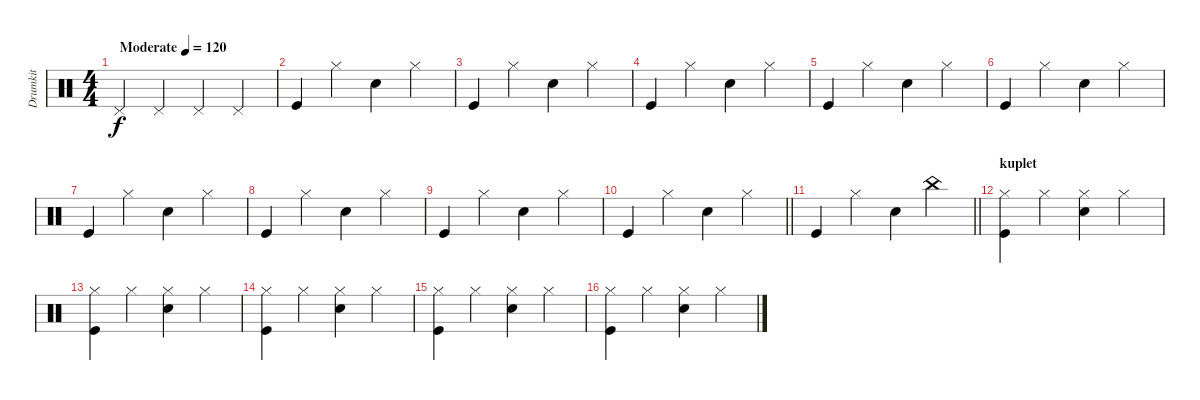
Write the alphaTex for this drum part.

\track ("Drumkit" "Drumkit") {instrument percussion}
\staff {score}
\articulation defaults
\ts (4 4)
\tempo (120 "Moderate")
\clef neutral
\ks c "Pedal Hi-Hat (hit)".4{dy f} "Pedal Hi-Hat (hit)".4 "Pedal Hi-Hat (hit)".4 "Pedal Hi-Hat (hit)".4
|
"Kick (hit)".4 "Hi-Hat (closed)".4 "Snare (hit) 2".4 "Hi-Hat (closed)".4 |
"Kick (hit)".4 "Hi-Hat (closed)".4 "Snare (hit) 2".4 "Hi-Hat (closed)".4 |
"Kick (hit)".4 "Hi-Hat (closed)".4 "Snare (hit) 2".4 "Hi-Hat (closed)".4 |
"Kick (hit)".4 "Hi-Hat (closed)".4 "Snare (hit) 2".4 "Hi-Hat (closed)".4 |
"Kick (hit)".4 "Hi-Hat (closed)".4 "Snare (hit) 2".4 "Hi-Hat (closed)".4 |
"Kick (hit)".4 "Hi-Hat (closed)".4 "Snare (hit) 2".4 "Hi-Hat (closed)".4 |
"Kick (hit)".4 "Hi-Hat (closed)".4 "Snare (hit) 2".4 "Hi-Hat (closed)".4 |
"Kick (hit)".4 "Hi-Hat (closed)".4 "Snare (hit) 2".4 "Hi-Hat (closed)".4 |
\barLineRight lightlight "Kick (hit)".4 "Hi-Hat (closed)".4 "Snare (hit) 2".4 "Hi-Hat (closed)".4
|
\barLineRight lightlight "Kick (hit)".4 "Hi-Hat (closed)".4 "Snare (hit) 2".4 "China (hit)".4
|
\section ("" "kuplet")
("Kick (hit)" "Hi-Hat (closed)").4 "Hi-Hat (closed)".4 ("Snare (hit) 2" "Hi-Hat (closed)").4 "Hi-Hat (closed)".4 |
("Kick (hit)" "Hi-Hat (closed)").4 "Hi-Hat (closed)".4 ("Snare (hit) 2" "Hi-Hat (closed)").4 "Hi-Hat (closed)".4 |
("Kick (hit)" "Hi-Hat (closed)").4 "Hi-Hat (closed)".4 ("Snare (hit) 2" "Hi-Hat (closed)").4 "Hi-Hat (closed)".4 |
("Kick (hit)" "Hi-Hat (closed)").4 "Hi-Hat (closed)".4 ("Snare (hit) 2" "Hi-Hat (closed)").4 "Hi-Hat (closed)".4 |
("Kick (hit)" "Hi-Hat (closed)").4 "Hi-Hat (closed)".4 ("Snare (hit) 2" "Hi-Hat (closed)").4 "Hi-Hat (closed)".4
